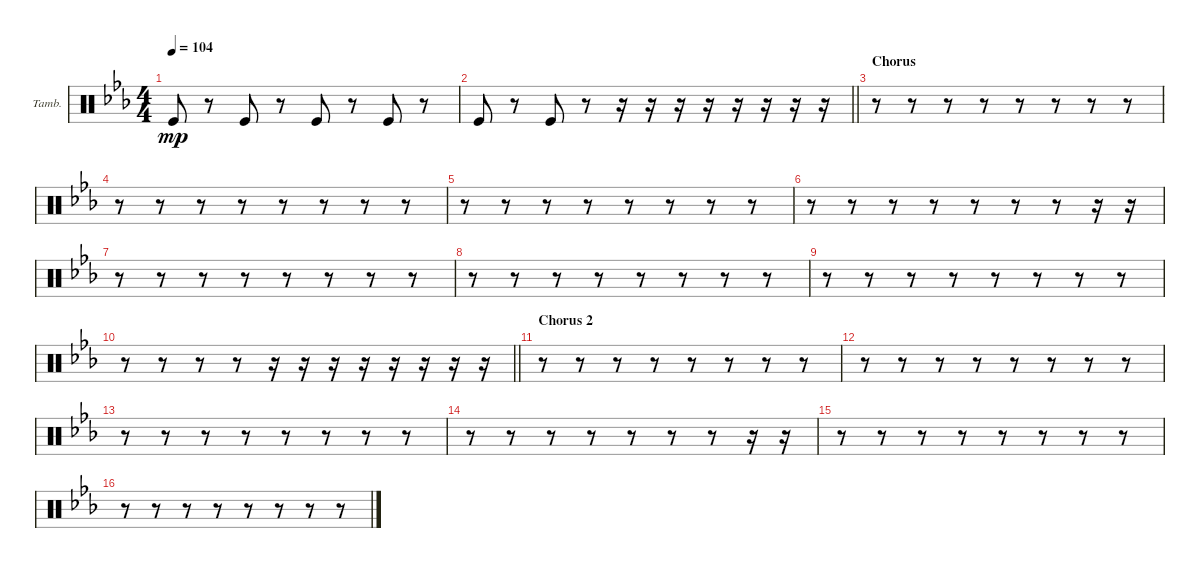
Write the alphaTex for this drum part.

\bracketExtendMode groupsimilarinstruments
\firstSystemTrackNameOrientation horizontal
\otherSystemsTrackNameOrientation horizontal
\track ("Tambourine" "Tamb.") {instrument percussion}
\staff {score}
\articulation defaults
\ts (4 4)
\tempo 104
\clef neutral
\ks eb "Kick (hit)".8{dy mp}
r.8 "Kick (hit)".8 r.8 "Kick (hit)".8 r.8 "Kick (hit)".8 r.8 |
\barLineRight lightlight "Kick (hit)".8
r.8 "Kick (hit)".8 r.8 r.16 r.16 r.16 r.16 r.16 r.16 r.16 r.16 |
\section ("" "Chorus")
r.8 r.8 r.8 r.8 r.8 r.8 r.8 r.8 |
r.8 r.8 r.8 r.8 r.8 r.8 r.8 r.8 |
r.8 r.8 r.8 r.8 r.8 r.8 r.8 r.8 |
r.8 r.8 r.8 r.8 r.8 r.8 r.8 r.16 r.16 |
r.8 r.8 r.8 r.8 r.8 r.8 r.8 r.8 |
r.8 r.8 r.8 r.8 r.8 r.8 r.8 r.8 |
r.8 r.8 r.8 r.8 r.8 r.8 r.8 r.8 |
\barLineRight lightlight
r.8 r.8 r.8 r.8 r.16 r.16 r.16 r.16 r.16 r.16 r.16 r.16 |
\section ("" "Chorus 2")
r.8 r.8 r.8 r.8 r.8 r.8 r.8 r.8 |
r.8 r.8 r.8 r.8 r.8 r.8 r.8 r.8 |
r.8 r.8 r.8 r.8 r.8 r.8 r.8 r.8 |
r.8 r.8 r.8 r.8 r.8 r.8 r.8 r.16 r.16 |
r.8 r.8 r.8 r.8 r.8 r.8 r.8 r.8 |
r.8 r.8 r.8 r.8 r.8 r.8 r.8 r.8
